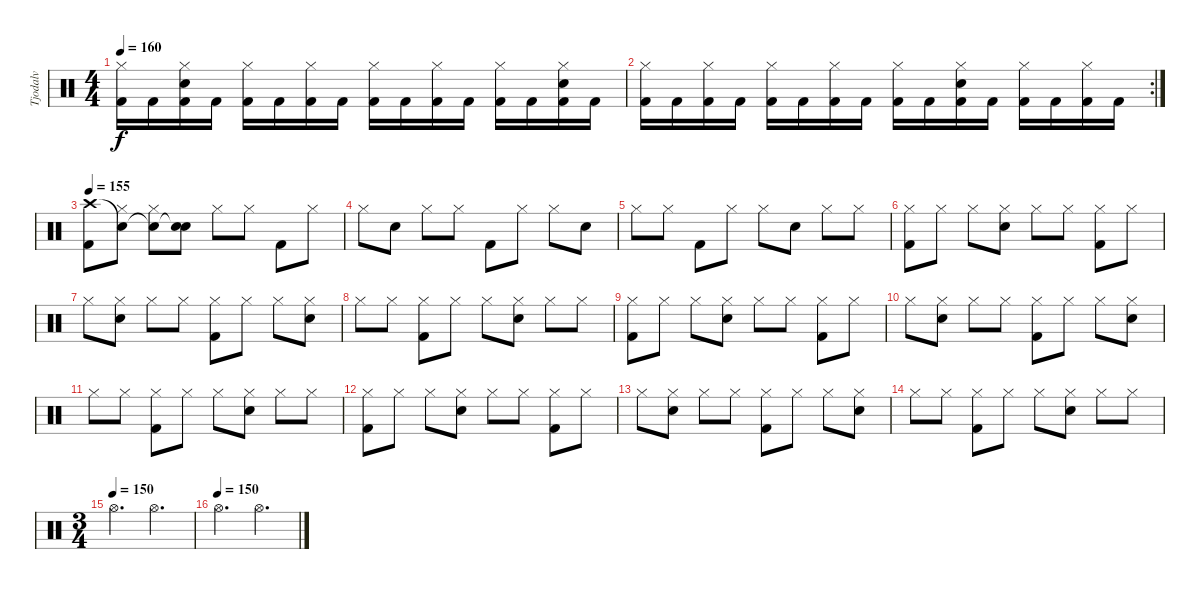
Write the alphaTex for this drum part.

\track ("Tjodalv" "Tjodalv") {instrument percussion}
\staff {score}
\articulation defaults
\ts (4 4)
\tempo 160
\clef neutral
\ks c
("Hi-Hat (closed)" "Kick (hit) 2").16{dy f} "Kick (hit) 2".16 ("Hi-Hat (closed)" "Snare (hit) 2" "Kick (hit) 2").16 "Kick (hit) 2".16 ("Hi-Hat (closed)" "Kick (hit) 2").16 "Kick (hit) 2".16 ("Hi-Hat (closed)" "Kick (hit) 2").16 "Kick (hit) 2".16 ("Hi-Hat (closed)" "Kick (hit) 2").16 "Kick (hit) 2".16 ("Hi-Hat (closed)" "Kick (hit) 2").16 "Kick (hit) 2".16 ("Hi-Hat (closed)" "Kick (hit) 2").16 "Kick (hit) 2".16 ("Hi-Hat (closed)" "Snare (hit) 2" "Kick (hit) 2").16 "Kick (hit) 2".16 |
\rc 2
("Hi-Hat (closed)" "Kick (hit) 2").16 "Kick (hit) 2".16 ("Hi-Hat (closed)" "Kick (hit) 2").16 "Kick (hit) 2".16 ("Hi-Hat (closed)" "Kick (hit) 2").16 "Kick (hit) 2".16 ("Hi-Hat (closed)" "Kick (hit) 2").16 "Kick (hit) 2".16 ("Hi-Hat (closed)" "Kick (hit) 2").16 "Kick (hit) 2".16 ("Hi-Hat (closed)" "Snare (hit) 2" "Kick (hit) 2").16 "Kick (hit) 2".16 ("Hi-Hat (closed)" "Kick (hit) 2").16 "Kick (hit) 2".16 ("Hi-Hat (closed)" "Kick (hit) 2").16 "Kick (hit) 2".16 |
\tempo 155
("Crash high (hit)" "Kick (hit) 2").8 ("Snare (hit)"{t} "Hi-Hat (closed)").8 ("Snare (hit)"{t} "Hi-Hat (closed)").8 ("Snare (hit)"{t} "Snare (hit) 2").8 "Hi-Hat (closed)".8 "Hi-Hat (closed)".8 "Kick (hit) 2".8 "Hi-Hat (closed)".8 |
"Hi-Hat (closed)".8 "Snare (hit) 2".8 "Hi-Hat (closed)".8 "Hi-Hat (closed)".8 "Kick (hit) 2".8 "Hi-Hat (closed)".8 "Hi-Hat (closed)".8 "Snare (hit) 2".8 |
"Hi-Hat (closed)".8 "Hi-Hat (closed)".8 "Kick (hit) 2".8 "Hi-Hat (closed)".8 "Hi-Hat (closed)".8 "Snare (hit) 2".8 "Hi-Hat (closed)".8 "Hi-Hat (closed)".8 |
("Hi-Hat (closed)" "Kick (hit) 2").8 "Hi-Hat (closed)".8 "Hi-Hat (closed)".8 ("Hi-Hat (closed)" "Snare (hit) 2").8 "Hi-Hat (closed)".8 "Hi-Hat (closed)".8 ("Hi-Hat (closed)" "Kick (hit) 2").8 "Hi-Hat (closed)".8 |
"Hi-Hat (closed)".8 ("Hi-Hat (closed)" "Snare (hit) 2").8 "Hi-Hat (closed)".8 "Hi-Hat (closed)".8 ("Hi-Hat (closed)" "Kick (hit) 2").8 "Hi-Hat (closed)".8 "Hi-Hat (closed)".8 ("Hi-Hat (closed)" "Snare (hit) 2").8 |
"Hi-Hat (closed)".8 "Hi-Hat (closed)".8 ("Hi-Hat (closed)" "Kick (hit) 2").8 "Hi-Hat (closed)".8 "Hi-Hat (closed)".8 ("Hi-Hat (closed)" "Snare (hit) 2").8 "Hi-Hat (closed)".8 "Hi-Hat (closed)".8 |
("Hi-Hat (closed)" "Kick (hit) 2").8 "Hi-Hat (closed)".8 "Hi-Hat (closed)".8 ("Hi-Hat (closed)" "Snare (hit) 2").8 "Hi-Hat (closed)".8 "Hi-Hat (closed)".8 ("Hi-Hat (closed)" "Kick (hit) 2").8 "Hi-Hat (closed)".8 |
"Hi-Hat (closed)".8 ("Hi-Hat (closed)" "Snare (hit) 2").8 "Hi-Hat (closed)".8 "Hi-Hat (closed)".8 ("Hi-Hat (closed)" "Kick (hit) 2").8 "Hi-Hat (closed)".8 "Hi-Hat (closed)".8 ("Hi-Hat (closed)" "Snare (hit) 2").8 |
"Hi-Hat (closed)".8 "Hi-Hat (closed)".8 ("Hi-Hat (closed)" "Kick (hit) 2").8 "Hi-Hat (closed)".8 "Hi-Hat (closed)".8 ("Hi-Hat (closed)" "Snare (hit) 2").8 "Hi-Hat (closed)".8 "Hi-Hat (closed)".8 |
("Hi-Hat (closed)" "Kick (hit) 2").8 "Hi-Hat (closed)".8 "Hi-Hat (closed)".8 ("Hi-Hat (closed)" "Snare (hit) 2").8 "Hi-Hat (closed)".8 "Hi-Hat (closed)".8 ("Hi-Hat (closed)" "Kick (hit) 2").8 "Hi-Hat (closed)".8 |
"Hi-Hat (closed)".8 ("Hi-Hat (closed)" "Snare (hit) 2").8 "Hi-Hat (closed)".8 "Hi-Hat (closed)".8 ("Hi-Hat (closed)" "Kick (hit) 2").8 "Hi-Hat (closed)".8 "Hi-Hat (closed)".8 ("Hi-Hat (closed)" "Snare (hit) 2").8 |
"Hi-Hat (closed)".8 "Hi-Hat (closed)".8 ("Hi-Hat (closed)" "Kick (hit) 2").8 "Hi-Hat (closed)".8 "Hi-Hat (closed)".8 ("Hi-Hat (closed)" "Snare (hit) 2").8 "Hi-Hat (closed)".8 "Hi-Hat (closed)".8 |
\ts (3 4)
\tempo (150)
"Hi-Hat (open)".4{d} "Hi-Hat (open)".4{d} |
\tempo (150)
"Hi-Hat (open)".4{d} "Hi-Hat (open)".4{d}
